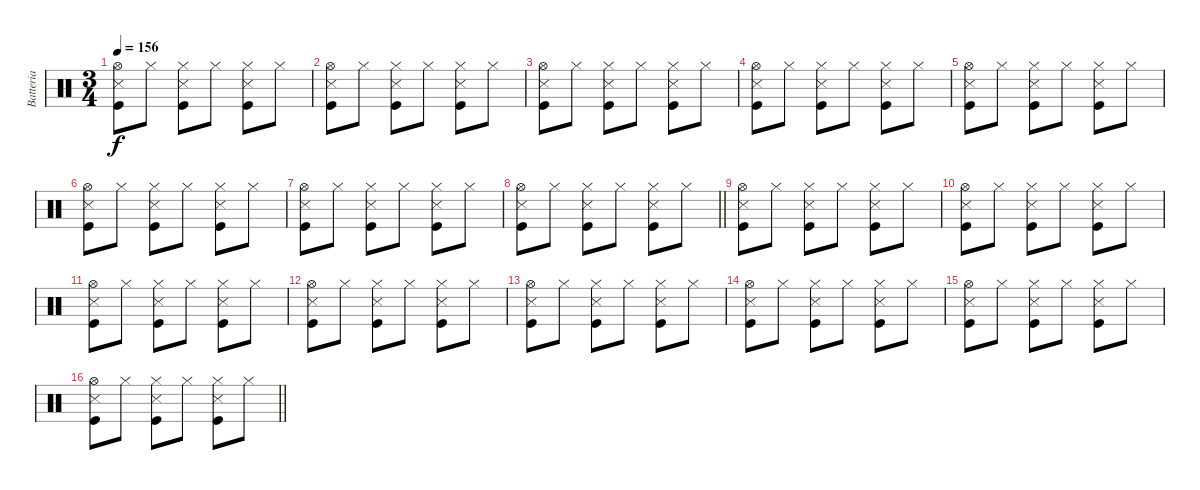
\track ("Batteria" "Batteria") {instrument percussion}
\staff {score}
\articulation defaults
\ts (3 4)
\tempo 156
\clef neutral
\ks c
("Hi-Hat (open)" "Kick (hit)" "Snare (side stick) 3").8{dy f} "Hi-Hat (closed)".8 ("Hi-Hat (closed)" "Kick (hit)" "Snare (side stick) 3").8 "Hi-Hat (closed)".8 ("Hi-Hat (closed)" "Kick (hit)" "Snare (side stick) 3").8 "Hi-Hat (closed)".8 |
("Hi-Hat (open)" "Kick (hit)" "Snare (side stick) 3").8 "Hi-Hat (closed)".8 ("Hi-Hat (closed)" "Kick (hit)" "Snare (side stick) 3").8 "Hi-Hat (closed)".8 ("Hi-Hat (closed)" "Kick (hit)" "Snare (side stick) 3").8 "Hi-Hat (closed)".8 |
("Hi-Hat (open)" "Kick (hit)" "Snare (side stick) 3").8 "Hi-Hat (closed)".8 ("Hi-Hat (closed)" "Kick (hit)" "Snare (side stick) 3").8 "Hi-Hat (closed)".8 ("Hi-Hat (closed)" "Kick (hit)" "Snare (side stick) 3").8 "Hi-Hat (closed)".8 |
("Hi-Hat (open)" "Kick (hit)" "Snare (side stick) 3").8 "Hi-Hat (closed)".8 ("Hi-Hat (closed)" "Kick (hit)" "Snare (side stick) 3").8 "Hi-Hat (closed)".8 ("Hi-Hat (closed)" "Kick (hit)" "Snare (side stick) 3").8 "Hi-Hat (closed)".8 |
("Hi-Hat (open)" "Kick (hit)" "Snare (side stick) 3").8 "Hi-Hat (closed)".8 ("Hi-Hat (closed)" "Kick (hit)" "Snare (side stick) 3").8 "Hi-Hat (closed)".8 ("Hi-Hat (closed)" "Kick (hit)" "Snare (side stick) 3").8 "Hi-Hat (closed)".8 |
("Hi-Hat (open)" "Kick (hit)" "Snare (side stick) 3").8 "Hi-Hat (closed)".8 ("Hi-Hat (closed)" "Kick (hit)" "Snare (side stick) 3").8 "Hi-Hat (closed)".8 ("Hi-Hat (closed)" "Kick (hit)" "Snare (side stick) 3").8 "Hi-Hat (closed)".8 |
("Hi-Hat (open)" "Kick (hit)" "Snare (side stick) 3").8 "Hi-Hat (closed)".8 ("Hi-Hat (closed)" "Kick (hit)" "Snare (side stick) 3").8 "Hi-Hat (closed)".8 ("Hi-Hat (closed)" "Kick (hit)" "Snare (side stick) 3").8 "Hi-Hat (closed)".8 |
\barLineRight lightlight
("Hi-Hat (open)" "Kick (hit)" "Snare (side stick) 3").8 "Hi-Hat (closed)".8 ("Hi-Hat (closed)" "Kick (hit)" "Snare (side stick) 3").8 "Hi-Hat (closed)".8 ("Hi-Hat (closed)" "Kick (hit)" "Snare (side stick) 3").8 "Hi-Hat (closed)".8 |
("Hi-Hat (open)" "Kick (hit)" "Snare (side stick) 3").8 "Hi-Hat (closed)".8 ("Hi-Hat (closed)" "Kick (hit)" "Snare (side stick) 3").8 "Hi-Hat (closed)".8 ("Hi-Hat (closed)" "Kick (hit)" "Snare (side stick) 3").8 "Hi-Hat (closed)".8 |
("Hi-Hat (open)" "Kick (hit)" "Snare (side stick) 3").8 "Hi-Hat (closed)".8 ("Hi-Hat (closed)" "Kick (hit)" "Snare (side stick) 3").8 "Hi-Hat (closed)".8 ("Hi-Hat (closed)" "Kick (hit)" "Snare (side stick) 3").8 "Hi-Hat (closed)".8 |
("Hi-Hat (open)" "Kick (hit)" "Snare (side stick) 3").8 "Hi-Hat (closed)".8 ("Hi-Hat (closed)" "Kick (hit)" "Snare (side stick) 3").8 "Hi-Hat (closed)".8 ("Hi-Hat (closed)" "Kick (hit)" "Snare (side stick) 3").8 "Hi-Hat (closed)".8 |
("Hi-Hat (open)" "Kick (hit)" "Snare (side stick) 3").8 "Hi-Hat (closed)".8 ("Hi-Hat (closed)" "Kick (hit)" "Snare (side stick) 3").8 "Hi-Hat (closed)".8 ("Hi-Hat (closed)" "Kick (hit)" "Snare (side stick) 3").8 "Hi-Hat (closed)".8 |
("Hi-Hat (open)" "Kick (hit)" "Snare (side stick) 3").8 "Hi-Hat (closed)".8 ("Hi-Hat (closed)" "Kick (hit)" "Snare (side stick) 3").8 "Hi-Hat (closed)".8 ("Hi-Hat (closed)" "Kick (hit)" "Snare (side stick) 3").8 "Hi-Hat (closed)".8 |
("Hi-Hat (open)" "Kick (hit)" "Snare (side stick) 3").8 "Hi-Hat (closed)".8 ("Hi-Hat (closed)" "Kick (hit)" "Snare (side stick) 3").8 "Hi-Hat (closed)".8 ("Hi-Hat (closed)" "Kick (hit)" "Snare (side stick) 3").8 "Hi-Hat (closed)".8 |
("Hi-Hat (open)" "Kick (hit)" "Snare (side stick) 3").8 "Hi-Hat (closed)".8 ("Hi-Hat (closed)" "Kick (hit)" "Snare (side stick) 3").8 "Hi-Hat (closed)".8 ("Hi-Hat (closed)" "Kick (hit)" "Snare (side stick) 3").8 "Hi-Hat (closed)".8 |
\barLineRight lightlight
("Hi-Hat (open)" "Kick (hit)" "Snare (side stick) 3").8 "Hi-Hat (closed)".8 ("Hi-Hat (closed)" "Kick (hit)" "Snare (side stick) 3").8 "Hi-Hat (closed)".8 ("Hi-Hat (closed)" "Kick (hit)" "Snare (side stick) 3").8 "Hi-Hat (closed)".8
